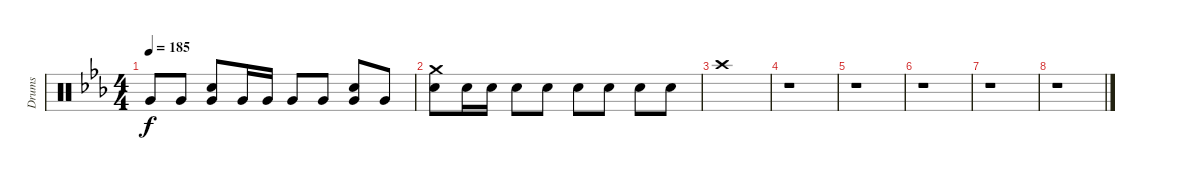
\track ("Drums" "Drums") {instrument percussion}
\staff {score}
\articulation defaults
\ts (4 4)
\tempo 185
\clef neutral
\ks eb "Very Low Tom (hit)".8{dy f} "Very Low Tom (hit)".8
("Snare (hit) 2" "Very Low Tom (hit)").8 "Very Low Tom (hit)".16 "Very Low Tom (hit)".16 "Very Low Tom (hit)".8 "Very Low Tom (hit)".8 ("Snare (hit) 2" "Very Low Tom (hit)").8 "Very Low Tom (hit)".8 |
("Crash medium (hit)" "Snare (hit) 2").8 "Snare (hit) 2".16 "Snare (hit) 2".16 "Snare (hit) 2".8 "Snare (hit) 2".8 "Snare (hit) 2".8 "Snare (hit) 2".8 "Snare (hit) 2".8 "Snare (hit) 2".8 |
"Crash high (hit)".1 |
r.1 |
r.1 |
r.1 |
r.1 |
r.1
